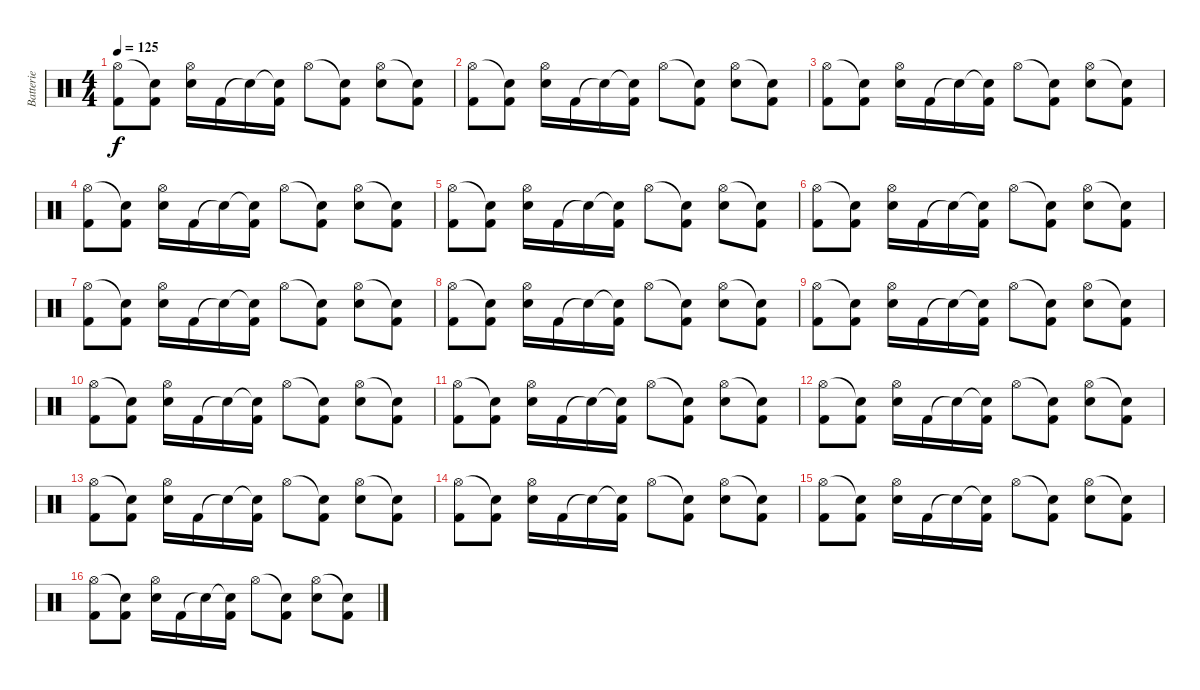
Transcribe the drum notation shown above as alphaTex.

\track ("Batterie" "Batterie") {instrument percussion}
\staff {score}
\articulation defaults
\ts (4 4)
\tempo 125
\clef neutral
\ks c
("Hi-Hat (open)" "Kick (hit) 2").8{dy f} ("Snare (hit)"{t} "Kick (hit) 2").8 ("Hi-Hat (open)" "Electric Snare (hit)").16 "Kick (hit) 2".16 "Snare (hit)"{t}.16 ("Snare (hit)"{t} "Kick (hit) 2").16 "Hi-Hat (open)".8 ("Snare (hit)"{t} "Kick (hit) 2").8 ("Hi-Hat (open)" "Electric Snare (hit)").8 ("Snare (hit)"{t} "Kick (hit) 2").8 |
("Hi-Hat (open)" "Kick (hit) 2").8 ("Snare (hit)"{t} "Kick (hit) 2").8 ("Hi-Hat (open)" "Electric Snare (hit)").16 "Kick (hit) 2".16 "Snare (hit)"{t}.16 ("Snare (hit)"{t} "Kick (hit) 2").16 "Hi-Hat (open)".8 ("Snare (hit)"{t} "Kick (hit) 2").8 ("Hi-Hat (open)" "Electric Snare (hit)").8 ("Snare (hit)"{t} "Kick (hit) 2").8 |
("Hi-Hat (open)" "Kick (hit) 2").8 ("Snare (hit)"{t} "Kick (hit) 2").8 ("Hi-Hat (open)" "Electric Snare (hit)").16 "Kick (hit) 2".16 "Snare (hit)"{t}.16 ("Snare (hit)"{t} "Kick (hit) 2").16 "Hi-Hat (open)".8 ("Snare (hit)"{t} "Kick (hit) 2").8 ("Hi-Hat (open)" "Electric Snare (hit)").8 ("Snare (hit)"{t} "Kick (hit) 2").8 |
("Hi-Hat (open)" "Kick (hit) 2").8 ("Snare (hit)"{t} "Kick (hit) 2").8 ("Hi-Hat (open)" "Electric Snare (hit)").16 "Kick (hit) 2".16 "Snare (hit)"{t}.16 ("Snare (hit)"{t} "Kick (hit) 2").16 "Hi-Hat (open)".8 ("Snare (hit)"{t} "Kick (hit) 2").8 ("Hi-Hat (open)" "Electric Snare (hit)").8 ("Snare (hit)"{t} "Kick (hit) 2").8 |
("Hi-Hat (open)" "Kick (hit) 2").8 ("Snare (hit)"{t} "Kick (hit) 2").8 ("Hi-Hat (open)" "Electric Snare (hit)").16 "Kick (hit) 2".16 "Snare (hit)"{t}.16 ("Snare (hit)"{t} "Kick (hit) 2").16 "Hi-Hat (open)".8 ("Snare (hit)"{t} "Kick (hit) 2").8 ("Hi-Hat (open)" "Electric Snare (hit)").8 ("Snare (hit)"{t} "Kick (hit) 2").8 |
("Hi-Hat (open)" "Kick (hit) 2").8 ("Snare (hit)"{t} "Kick (hit) 2").8 ("Hi-Hat (open)" "Electric Snare (hit)").16 "Kick (hit) 2".16 "Snare (hit)"{t}.16 ("Snare (hit)"{t} "Kick (hit) 2").16 "Hi-Hat (open)".8 ("Snare (hit)"{t} "Kick (hit) 2").8 ("Hi-Hat (open)" "Electric Snare (hit)").8 ("Snare (hit)"{t} "Kick (hit) 2").8 |
("Hi-Hat (open)" "Kick (hit) 2").8 ("Snare (hit)"{t} "Kick (hit) 2").8 ("Hi-Hat (open)" "Electric Snare (hit)").16 "Kick (hit) 2".16 "Snare (hit)"{t}.16 ("Snare (hit)"{t} "Kick (hit) 2").16 "Hi-Hat (open)".8 ("Snare (hit)"{t} "Kick (hit) 2").8 ("Hi-Hat (open)" "Electric Snare (hit)").8 ("Snare (hit)"{t} "Kick (hit) 2").8 |
("Hi-Hat (open)" "Kick (hit) 2").8 ("Snare (hit)"{t} "Kick (hit) 2").8 ("Hi-Hat (open)" "Electric Snare (hit)").16 "Kick (hit) 2".16 "Snare (hit)"{t}.16 ("Snare (hit)"{t} "Kick (hit) 2").16 "Hi-Hat (open)".8 ("Snare (hit)"{t} "Kick (hit) 2").8 ("Hi-Hat (open)" "Electric Snare (hit)").8 ("Snare (hit)"{t} "Kick (hit) 2").8 |
("Hi-Hat (open)" "Kick (hit) 2").8 ("Snare (hit)"{t} "Kick (hit) 2").8 ("Hi-Hat (open)" "Electric Snare (hit)").16 "Kick (hit) 2".16 "Snare (hit)"{t}.16 ("Snare (hit)"{t} "Kick (hit) 2").16 "Hi-Hat (open)".8 ("Snare (hit)"{t} "Kick (hit) 2").8 ("Hi-Hat (open)" "Electric Snare (hit)").8 ("Snare (hit)"{t} "Kick (hit) 2").8 |
("Hi-Hat (open)" "Kick (hit) 2").8 ("Snare (hit)"{t} "Kick (hit) 2").8 ("Hi-Hat (open)" "Electric Snare (hit)").16 "Kick (hit) 2".16 "Snare (hit)"{t}.16 ("Snare (hit)"{t} "Kick (hit) 2").16 "Hi-Hat (open)".8 ("Snare (hit)"{t} "Kick (hit) 2").8 ("Hi-Hat (open)" "Electric Snare (hit)").8 ("Snare (hit)"{t} "Kick (hit) 2").8 |
("Hi-Hat (open)" "Kick (hit) 2").8 ("Snare (hit)"{t} "Kick (hit) 2").8 ("Hi-Hat (open)" "Electric Snare (hit)").16 "Kick (hit) 2".16 "Snare (hit)"{t}.16 ("Snare (hit)"{t} "Kick (hit) 2").16 "Hi-Hat (open)".8 ("Snare (hit)"{t} "Kick (hit) 2").8 ("Hi-Hat (open)" "Electric Snare (hit)").8 ("Snare (hit)"{t} "Kick (hit) 2").8 |
("Hi-Hat (open)" "Kick (hit) 2").8 ("Snare (hit)"{t} "Kick (hit) 2").8 ("Hi-Hat (open)" "Electric Snare (hit)").16 "Kick (hit) 2".16 "Snare (hit)"{t}.16 ("Snare (hit)"{t} "Kick (hit) 2").16 "Hi-Hat (open)".8 ("Snare (hit)"{t} "Kick (hit) 2").8 ("Hi-Hat (open)" "Electric Snare (hit)").8 ("Snare (hit)"{t} "Kick (hit) 2").8 |
("Hi-Hat (open)" "Kick (hit) 2").8 ("Snare (hit)"{t} "Kick (hit) 2").8 ("Hi-Hat (open)" "Electric Snare (hit)").16 "Kick (hit) 2".16 "Snare (hit)"{t}.16 ("Snare (hit)"{t} "Kick (hit) 2").16 "Hi-Hat (open)".8 ("Snare (hit)"{t} "Kick (hit) 2").8 ("Hi-Hat (open)" "Electric Snare (hit)").8 ("Snare (hit)"{t} "Kick (hit) 2").8 |
("Hi-Hat (open)" "Kick (hit) 2").8 ("Snare (hit)"{t} "Kick (hit) 2").8 ("Hi-Hat (open)" "Electric Snare (hit)").16 "Kick (hit) 2".16 "Snare (hit)"{t}.16 ("Snare (hit)"{t} "Kick (hit) 2").16 "Hi-Hat (open)".8 ("Snare (hit)"{t} "Kick (hit) 2").8 ("Hi-Hat (open)" "Electric Snare (hit)").8 ("Snare (hit)"{t} "Kick (hit) 2").8 |
("Hi-Hat (open)" "Kick (hit) 2").8 ("Snare (hit)"{t} "Kick (hit) 2").8 ("Hi-Hat (open)" "Electric Snare (hit)").16 "Kick (hit) 2".16 "Snare (hit)"{t}.16 ("Snare (hit)"{t} "Kick (hit) 2").16 "Hi-Hat (open)".8 ("Snare (hit)"{t} "Kick (hit) 2").8 ("Hi-Hat (open)" "Electric Snare (hit)").8 ("Snare (hit)"{t} "Kick (hit) 2").8 |
("Hi-Hat (open)" "Kick (hit) 2").8 ("Snare (hit)"{t} "Kick (hit) 2").8 ("Hi-Hat (open)" "Electric Snare (hit)").16 "Kick (hit) 2".16 "Snare (hit)"{t}.16 ("Snare (hit)"{t} "Kick (hit) 2").16 "Hi-Hat (open)".8 ("Snare (hit)"{t} "Kick (hit) 2").8 ("Hi-Hat (open)" "Electric Snare (hit)").8 ("Snare (hit)"{t} "Kick (hit) 2").8
